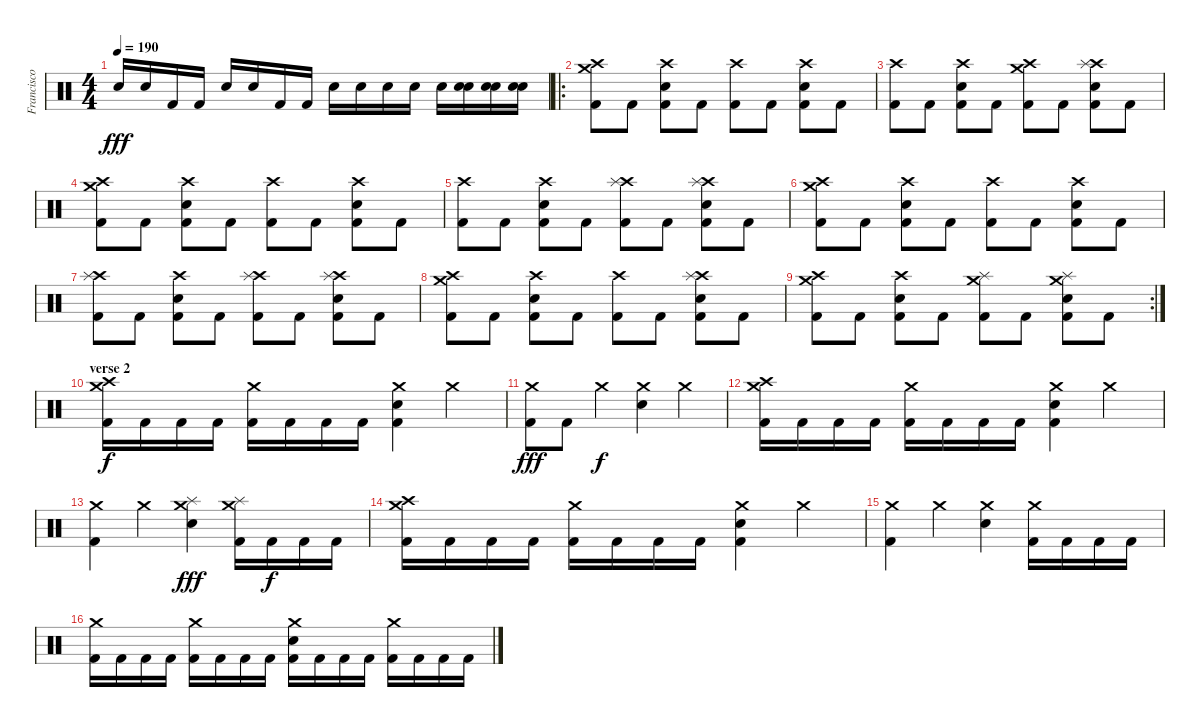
\track ("Francisco Izquierdo (Percusión)" "Francisco ") {instrument percussion}
\staff {score}
\articulation defaults
\ts (4 4)
\tempo 190
\clef neutral
\ks c "Electric Snare (hit)".16{dy fff} "Electric Snare (hit)".16 "Kick (hit) 2".16 "Kick (hit) 2".16 "Electric Snare (hit)".16 "Electric Snare (hit)".16 "Kick (hit) 2".16 "Kick (hit) 2".16 "Electric Snare (hit)".16 "Electric Snare (hit)".16 "Electric Snare (hit)".16 "Electric Snare (hit)".16 "Electric Snare (hit)".16
("Electric Snare (hit)" "Electric Snare (hit)").16 ("Electric Snare (hit)" "Electric Snare (hit)").16 ("Electric Snare (hit)" "Electric Snare (hit)").16 |
\ro
("Crash high (hit)" "Crash medium (hit)" "Kick (hit) 2").8 "Kick (hit) 2".8 ("Crash high (hit)" "Electric Snare (hit)" "Kick (hit) 2").8 "Kick (hit) 2".8 ("Crash high (hit)" "Kick (hit) 2").8 "Kick (hit) 2".8 ("Crash high (hit)" "Electric Snare (hit)" "Kick (hit) 2").8 "Kick (hit) 2".8 |
("Crash high (hit)" "Kick (hit) 2").8 "Kick (hit) 2".8 ("Crash high (hit)" "Electric Snare (hit)" "Kick (hit) 2").8 "Kick (hit) 2".8 ("Crash high (hit)" "Crash medium (hit)" "Kick (hit) 2").8 "Kick (hit) 2".8 ("Crash high (hit)" "Splash (hit)" "Electric Snare (hit)" "Kick (hit) 2").8 "Kick (hit) 2".8 |
("Crash high (hit)" "Crash medium (hit)" "Kick (hit) 2").8 "Kick (hit) 2".8 ("Crash high (hit)" "Electric Snare (hit)" "Kick (hit) 2").8 "Kick (hit) 2".8 ("Crash high (hit)" "Kick (hit) 2").8 "Kick (hit) 2".8 ("Crash high (hit)" "Electric Snare (hit)" "Kick (hit) 2").8 "Kick (hit) 2".8 |
("Crash high (hit)" "Kick (hit) 2").8 "Kick (hit) 2".8 ("Crash high (hit)" "Electric Snare (hit)" "Kick (hit) 2").8 "Kick (hit) 2".8 ("Crash high (hit)" "Splash (hit)" "Kick (hit) 2").8 "Kick (hit) 2".8 ("Crash high (hit)" "Splash (hit)" "Electric Snare (hit)" "Kick (hit) 2").8 "Kick (hit) 2".8 |
("Crash high (hit)" "Crash medium (hit)" "Kick (hit) 2").8 "Kick (hit) 2".8 ("Crash high (hit)" "Electric Snare (hit)" "Kick (hit) 2").8 "Kick (hit) 2".8 ("Crash high (hit)" "Kick (hit) 2").8 "Kick (hit) 2".8 ("Crash high (hit)" "Electric Snare (hit)" "Kick (hit) 2").8 "Kick (hit) 2".8 |
("Crash high (hit)" "Splash (hit)" "Kick (hit) 2").8 "Kick (hit) 2".8 ("Crash high (hit)" "Electric Snare (hit)" "Kick (hit) 2").8 "Kick (hit) 2".8 ("Crash high (hit)" "Splash (hit)" "Kick (hit) 2").8 "Kick (hit) 2".8 ("Crash high (hit)" "Splash (hit)" "Electric Snare (hit)" "Kick (hit) 2").8 "Kick (hit) 2".8 |
("Crash high (hit)" "Crash medium (hit)" "Kick (hit) 2").8 "Kick (hit) 2".8 ("Crash high (hit)" "Electric Snare (hit)" "Kick (hit) 2").8 "Kick (hit) 2".8 ("Crash high (hit)" "Kick (hit) 2").8 "Kick (hit) 2".8 ("Crash high (hit)" "Splash (hit)" "Electric Snare (hit)" "Kick (hit) 2").8 "Kick (hit) 2".8 |
\rc 2
("Crash high (hit)" "Crash medium (hit)" "Kick (hit) 2").8 "Kick (hit) 2".8 ("Crash high (hit)" "Electric Snare (hit)" "Kick (hit) 2").8 "Kick (hit) 2".8 ("Crash medium (hit)" "Splash (hit)" "Kick (hit) 2").8 "Kick (hit) 2".8 ("Crash medium (hit)" "Splash (hit)" "Electric Snare (hit)" "Kick (hit) 2").8 "Kick (hit) 2".8 |
\section ("" "verse 2")
("Crash medium (hit)" "Crash high (hit)" "Kick (hit) 2").16{dy f} "Kick (hit) 2".16 "Kick (hit) 2".16 "Kick (hit) 2".16 ("Crash medium (hit)" "Kick (hit) 2").16 "Kick (hit) 2".16 "Kick (hit) 2".16 "Kick (hit) 2".16 ("Crash medium (hit)" "Electric Snare (hit)" "Kick (hit) 2").4 "Crash medium (hit)".4 |
("Crash medium (hit)" "Kick (hit) 2").8{dy fff} "Kick (hit) 2".8 "Crash medium (hit)".4{dy f} ("Crash medium (hit)" "Electric Snare (hit)").4 "Crash medium (hit)".4 |
("Crash medium (hit)" "Crash high (hit)" "Kick (hit) 2").16 "Kick (hit) 2".16 "Kick (hit) 2".16 "Kick (hit) 2".16 ("Crash medium (hit)" "Kick (hit) 2").16 "Kick (hit) 2".16 "Kick (hit) 2".16 "Kick (hit) 2".16 ("Crash medium (hit)" "Electric Snare (hit)" "Kick (hit) 2").4 "Crash medium (hit)".4 |
("Crash medium (hit)" "Kick (hit) 2").4 "Crash medium (hit)".4 ("Splash (hit)" "Crash medium (hit)" "Electric Snare (hit)").4{dy fff} ("Splash (hit)" "Crash medium (hit)" "Kick (hit) 2").16 "Kick (hit) 2".16{dy f} "Kick (hit) 2".16 "Kick (hit) 2".16 |
("Crash medium (hit)" "Crash high (hit)" "Kick (hit) 2").16 "Kick (hit) 2".16 "Kick (hit) 2".16 "Kick (hit) 2".16 ("Crash medium (hit)" "Kick (hit) 2").16 "Kick (hit) 2".16 "Kick (hit) 2".16 "Kick (hit) 2".16 ("Crash medium (hit)" "Electric Snare (hit)" "Kick (hit) 2").4 "Crash medium (hit)".4 |
("Crash medium (hit)" "Kick (hit) 2").4 "Crash medium (hit)".4 ("Crash medium (hit)" "Electric Snare (hit)").4 ("Crash medium (hit)" "Kick (hit) 2").16 "Kick (hit) 2".16 "Kick (hit) 2".16 "Kick (hit) 2".16 |
("Crash medium (hit)" "Kick (hit) 2").16 "Kick (hit) 2".16 "Kick (hit) 2".16 "Kick (hit) 2".16 ("Crash medium (hit)" "Kick (hit) 2").16 "Kick (hit) 2".16 "Kick (hit) 2".16 "Kick (hit) 2".16 ("Crash medium (hit)" "Electric Snare (hit)" "Kick (hit) 2").16 "Kick (hit) 2".16 "Kick (hit) 2".16 "Kick (hit) 2".16 ("Crash medium (hit)" "Kick (hit) 2").16 "Kick (hit) 2".16 "Kick (hit) 2".16 "Kick (hit) 2".16
